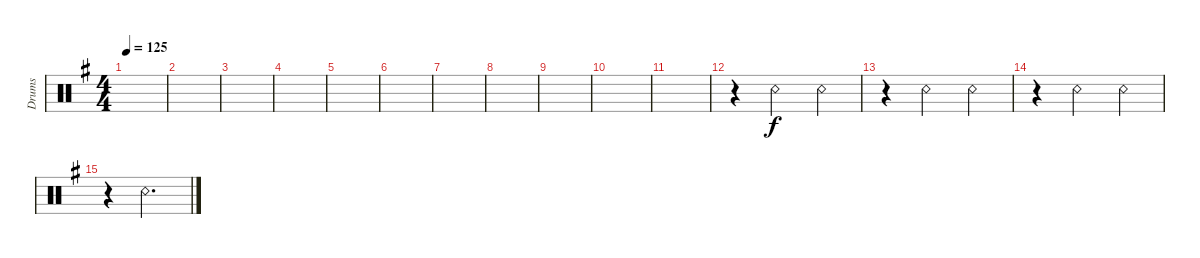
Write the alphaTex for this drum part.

\defaultSystemsLayout 4
\bracketExtendMode groupsimilarinstruments
\otherSystemsTrackNameOrientation horizontal
\track ("Drumkit" "Drums") {instrument percussion}
\staff {score}
\articulation defaults
\ts (4 4)
\tempo 125
\clef neutral
\scale
0.333333
\ks g
|
\scale
0.333333 |
\scale
0.333333 |
\scale
0.333333 |
\scale
0.333333 |
\scale
0.333333 |
\scale
0.333333 |
\scale
0.333333 |
\scale
0.333333 |
\scale
0.333333 |
\scale
0.333333 |
\scale
0.333333 r.4{beam Down} "Snare (rim shot)"{acc forcenatural}.2{beam Down} "Snare (rim shot)"{acc forcenatural}.4{beam Down} |
\scale
0.333333 r.4{beam Down} "Snare (rim shot)"{acc forcenatural}.2{beam Down} "Snare (rim shot)"{acc forcenatural}.4{beam Down} |
\scale
0.333333 r.4{beam Down} "Snare (rim shot)"{acc forcenatural}.2{beam Down} "Snare (rim shot)"{acc forcenatural}.4{beam Down} |
\scale
0.333333 r.4{beam Down} "Snare (rim shot)"{acc forcenatural}.2{d beam Down} |
\scale
0.333333
